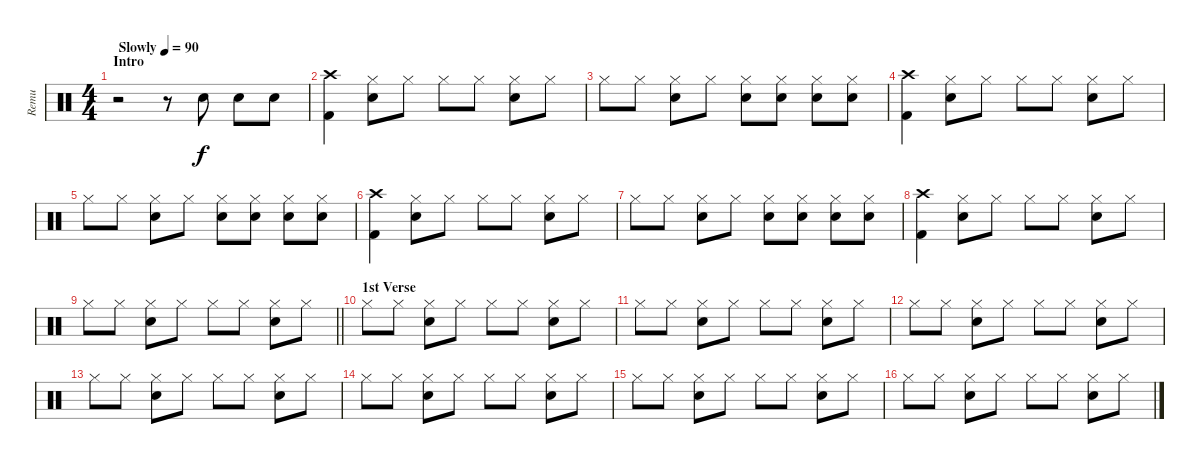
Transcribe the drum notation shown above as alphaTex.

\track ("Remu" "Remu") {instrument percussion}
\staff {score}
\articulation defaults
\ts (4 4)
\section ("" "Intro")
\tempo (90 "Slowly")
\clef neutral
\ks c
r.2{dy f} r.8 "Electric Snare (hit)".8 "Electric Snare (hit)".8 "Electric Snare (hit)".8 |
("Crash high (hit)" "Kick (hit) 2").4 ("Hi-Hat (closed)" "Snare (hit) 2").8 "Hi-Hat (closed)".8 "Hi-Hat (closed)".8 "Hi-Hat (closed)".8 ("Hi-Hat (closed)" "Snare (hit) 2").8 "Hi-Hat (closed)".8 |
"Hi-Hat (closed)".8 "Hi-Hat (closed)".8 ("Hi-Hat (closed)" "Snare (hit) 2").8 "Hi-Hat (closed)".8 ("Hi-Hat (closed)" "Snare (hit) 2").8 ("Hi-Hat (closed)" "Snare (hit) 2").8 ("Hi-Hat (closed)" "Snare (hit) 2").8 ("Hi-Hat (closed)" "Snare (hit) 2").8 |
("Crash high (hit)" "Kick (hit) 2").4 ("Hi-Hat (closed)" "Snare (hit) 2").8 "Hi-Hat (closed)".8 "Hi-Hat (closed)".8 "Hi-Hat (closed)".8 ("Hi-Hat (closed)" "Snare (hit) 2").8 "Hi-Hat (closed)".8 |
"Hi-Hat (closed)".8 "Hi-Hat (closed)".8 ("Hi-Hat (closed)" "Snare (hit) 2").8 "Hi-Hat (closed)".8 ("Hi-Hat (closed)" "Snare (hit) 2").8 ("Hi-Hat (closed)" "Snare (hit) 2").8 ("Hi-Hat (closed)" "Snare (hit) 2").8 ("Hi-Hat (closed)" "Snare (hit) 2").8 |
("Crash high (hit)" "Kick (hit) 2").4 ("Hi-Hat (closed)" "Snare (hit) 2").8 "Hi-Hat (closed)".8 "Hi-Hat (closed)".8 "Hi-Hat (closed)".8 ("Hi-Hat (closed)" "Snare (hit) 2").8 "Hi-Hat (closed)".8 |
"Hi-Hat (closed)".8 "Hi-Hat (closed)".8 ("Hi-Hat (closed)" "Snare (hit) 2").8 "Hi-Hat (closed)".8 ("Hi-Hat (closed)" "Snare (hit) 2").8 ("Hi-Hat (closed)" "Snare (hit) 2").8 ("Hi-Hat (closed)" "Snare (hit) 2").8 ("Hi-Hat (closed)" "Snare (hit) 2").8 |
("Crash high (hit)" "Kick (hit) 2").4 ("Hi-Hat (closed)" "Snare (hit) 2").8 "Hi-Hat (closed)".8 "Hi-Hat (closed)".8 "Hi-Hat (closed)".8 ("Hi-Hat (closed)" "Snare (hit) 2").8 "Hi-Hat (closed)".8 |
\barLineRight lightlight "Hi-Hat (closed)".8 "Hi-Hat (closed)".8
("Hi-Hat (closed)" "Snare (hit) 2").8 "Hi-Hat (closed)".8 "Hi-Hat (closed)".8 "Hi-Hat (closed)".8 ("Hi-Hat (closed)" "Snare (hit) 2").8 "Hi-Hat (closed)".8 |
\section ("" "1st Verse")
"Hi-Hat (closed)".8 "Hi-Hat (closed)".8 ("Hi-Hat (closed)" "Snare (hit) 2").8 "Hi-Hat (closed)".8 "Hi-Hat (closed)".8 "Hi-Hat (closed)".8 ("Hi-Hat (closed)" "Snare (hit) 2").8 "Hi-Hat (closed)".8 |
"Hi-Hat (closed)".8 "Hi-Hat (closed)".8 ("Hi-Hat (closed)" "Snare (hit) 2").8 "Hi-Hat (closed)".8 "Hi-Hat (closed)".8 "Hi-Hat (closed)".8 ("Hi-Hat (closed)" "Snare (hit) 2").8 "Hi-Hat (closed)".8 |
"Hi-Hat (closed)".8 "Hi-Hat (closed)".8 ("Hi-Hat (closed)" "Snare (hit) 2").8 "Hi-Hat (closed)".8 "Hi-Hat (closed)".8 "Hi-Hat (closed)".8 ("Hi-Hat (closed)" "Snare (hit) 2").8 "Hi-Hat (closed)".8 |
"Hi-Hat (closed)".8 "Hi-Hat (closed)".8 ("Hi-Hat (closed)" "Snare (hit) 2").8 "Hi-Hat (closed)".8 "Hi-Hat (closed)".8 "Hi-Hat (closed)".8 ("Hi-Hat (closed)" "Snare (hit) 2").8 "Hi-Hat (closed)".8 |
"Hi-Hat (closed)".8 "Hi-Hat (closed)".8 ("Hi-Hat (closed)" "Snare (hit) 2").8 "Hi-Hat (closed)".8 "Hi-Hat (closed)".8 "Hi-Hat (closed)".8 ("Hi-Hat (closed)" "Snare (hit) 2").8 "Hi-Hat (closed)".8 |
"Hi-Hat (closed)".8 "Hi-Hat (closed)".8 ("Hi-Hat (closed)" "Snare (hit) 2").8 "Hi-Hat (closed)".8 "Hi-Hat (closed)".8 "Hi-Hat (closed)".8 ("Hi-Hat (closed)" "Snare (hit) 2").8 "Hi-Hat (closed)".8 |
"Hi-Hat (closed)".8 "Hi-Hat (closed)".8 ("Hi-Hat (closed)" "Snare (hit) 2").8 "Hi-Hat (closed)".8 "Hi-Hat (closed)".8 "Hi-Hat (closed)".8 ("Hi-Hat (closed)" "Snare (hit) 2").8 "Hi-Hat (closed)".8
